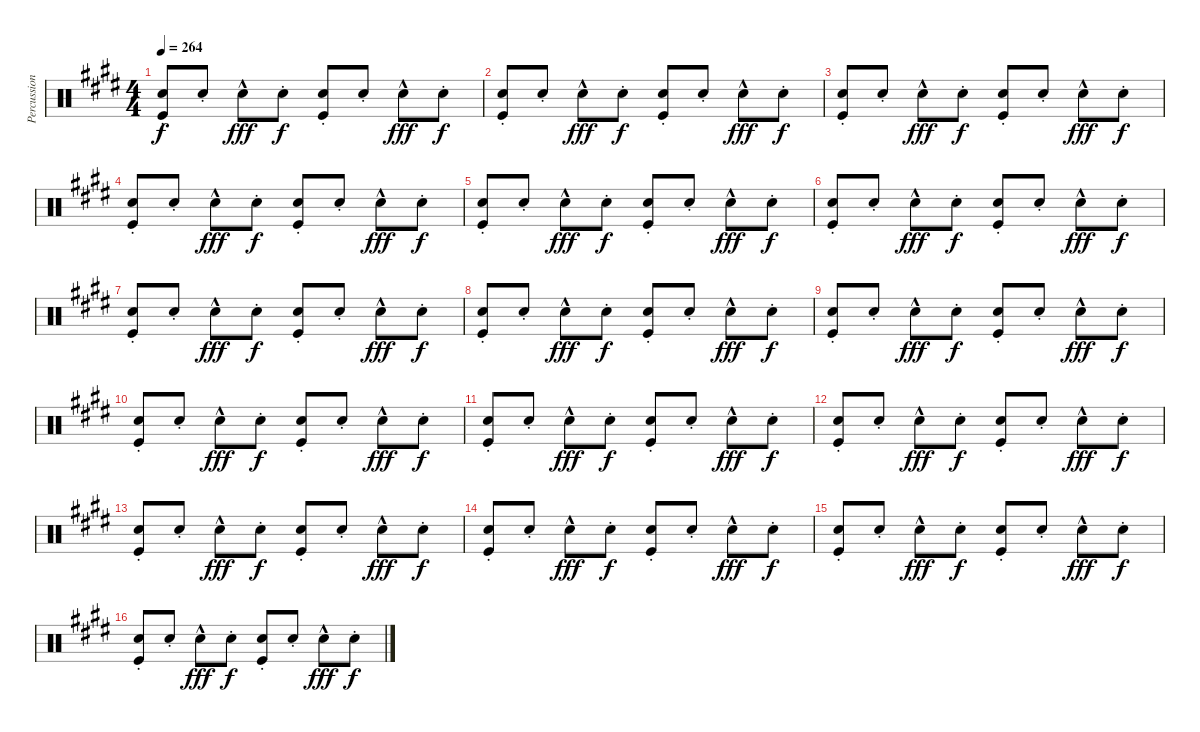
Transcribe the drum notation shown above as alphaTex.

\track ("Percussion" "Percussion") {instrument percussion}
\staff {score}
\articulation defaults
\ts (4 4)
\tempo 264
\clef neutral
\ks e
("Snare (hit) 2"{st} "Kick (hit)").8{dy f} "Snare (hit) 2"{st}.8 "Snare (hit) 2"{hac}.8{dy fff} "Snare (hit) 2"{st}.8{dy f} ("Snare (hit) 2"{st} "Kick (hit)").8 "Snare (hit) 2"{st}.8 "Snare (hit) 2"{hac}.8{dy fff} "Snare (hit) 2"{st}.8{dy f} |
("Snare (hit) 2"{st} "Kick (hit)").8 "Snare (hit) 2"{st}.8 "Snare (hit) 2"{hac}.8{dy fff} "Snare (hit) 2"{st}.8{dy f} ("Snare (hit) 2"{st} "Kick (hit)").8 "Snare (hit) 2"{st}.8 "Snare (hit) 2"{hac}.8{dy fff} "Snare (hit) 2"{st}.8{dy f} |
("Snare (hit) 2"{st} "Kick (hit)").8 "Snare (hit) 2"{st}.8 "Snare (hit) 2"{hac}.8{dy fff} "Snare (hit) 2"{st}.8{dy f} ("Snare (hit) 2"{st} "Kick (hit)").8 "Snare (hit) 2"{st}.8 "Snare (hit) 2"{hac}.8{dy fff} "Snare (hit) 2"{st}.8{dy f} |
("Snare (hit) 2"{st} "Kick (hit)").8 "Snare (hit) 2"{st}.8 "Snare (hit) 2"{hac}.8{dy fff} "Snare (hit) 2"{st}.8{dy f} ("Snare (hit) 2"{st} "Kick (hit)").8 "Snare (hit) 2"{st}.8 "Snare (hit) 2"{hac}.8{dy fff} "Snare (hit) 2"{st}.8{dy f} |
("Snare (hit) 2"{st} "Kick (hit)").8 "Snare (hit) 2"{st}.8 "Snare (hit) 2"{hac}.8{dy fff} "Snare (hit) 2"{st}.8{dy f} ("Snare (hit) 2"{st} "Kick (hit)").8 "Snare (hit) 2"{st}.8 "Snare (hit) 2"{hac}.8{dy fff} "Snare (hit) 2"{st}.8{dy f} |
("Snare (hit) 2"{st} "Kick (hit)").8 "Snare (hit) 2"{st}.8 "Snare (hit) 2"{hac}.8{dy fff} "Snare (hit) 2"{st}.8{dy f} ("Snare (hit) 2"{st} "Kick (hit)").8 "Snare (hit) 2"{st}.8 "Snare (hit) 2"{hac}.8{dy fff} "Snare (hit) 2"{st}.8{dy f} |
("Snare (hit) 2"{st} "Kick (hit)").8 "Snare (hit) 2"{st}.8 "Snare (hit) 2"{hac}.8{dy fff} "Snare (hit) 2"{st}.8{dy f} ("Snare (hit) 2"{st} "Kick (hit)").8 "Snare (hit) 2"{st}.8 "Snare (hit) 2"{hac}.8{dy fff} "Snare (hit) 2"{st}.8{dy f} |
("Snare (hit) 2"{st} "Kick (hit)").8 "Snare (hit) 2"{st}.8 "Snare (hit) 2"{hac}.8{dy fff} "Snare (hit) 2"{st}.8{dy f} ("Snare (hit) 2"{st} "Kick (hit)").8 "Snare (hit) 2"{st}.8 "Snare (hit) 2"{hac}.8{dy fff} "Snare (hit) 2"{st}.8{dy f} |
("Snare (hit) 2"{st} "Kick (hit)").8 "Snare (hit) 2"{st}.8 "Snare (hit) 2"{hac}.8{dy fff} "Snare (hit) 2"{st}.8{dy f} ("Snare (hit) 2"{st} "Kick (hit)").8 "Snare (hit) 2"{st}.8 "Snare (hit) 2"{hac}.8{dy fff} "Snare (hit) 2"{st}.8{dy f} |
("Snare (hit) 2"{st} "Kick (hit)").8 "Snare (hit) 2"{st}.8 "Snare (hit) 2"{hac}.8{dy fff} "Snare (hit) 2"{st}.8{dy f} ("Snare (hit) 2"{st} "Kick (hit)").8 "Snare (hit) 2"{st}.8 "Snare (hit) 2"{hac}.8{dy fff} "Snare (hit) 2"{st}.8{dy f} |
("Snare (hit) 2"{st} "Kick (hit)").8 "Snare (hit) 2"{st}.8 "Snare (hit) 2"{hac}.8{dy fff} "Snare (hit) 2"{st}.8{dy f} ("Snare (hit) 2"{st} "Kick (hit)").8 "Snare (hit) 2"{st}.8 "Snare (hit) 2"{hac}.8{dy fff} "Snare (hit) 2"{st}.8{dy f} |
("Snare (hit) 2"{st} "Kick (hit)").8 "Snare (hit) 2"{st}.8 "Snare (hit) 2"{hac}.8{dy fff} "Snare (hit) 2"{st}.8{dy f} ("Snare (hit) 2"{st} "Kick (hit)").8 "Snare (hit) 2"{st}.8 "Snare (hit) 2"{hac}.8{dy fff} "Snare (hit) 2"{st}.8{dy f} |
("Snare (hit) 2"{st} "Kick (hit)").8 "Snare (hit) 2"{st}.8 "Snare (hit) 2"{hac}.8{dy fff} "Snare (hit) 2"{st}.8{dy f} ("Snare (hit) 2"{st} "Kick (hit)").8 "Snare (hit) 2"{st}.8 "Snare (hit) 2"{hac}.8{dy fff} "Snare (hit) 2"{st}.8{dy f} |
("Snare (hit) 2"{st} "Kick (hit)").8 "Snare (hit) 2"{st}.8 "Snare (hit) 2"{hac}.8{dy fff} "Snare (hit) 2"{st}.8{dy f} ("Snare (hit) 2"{st} "Kick (hit)").8 "Snare (hit) 2"{st}.8 "Snare (hit) 2"{hac}.8{dy fff} "Snare (hit) 2"{st}.8{dy f} |
("Snare (hit) 2"{st} "Kick (hit)").8 "Snare (hit) 2"{st}.8 "Snare (hit) 2"{hac}.8{dy fff} "Snare (hit) 2"{st}.8{dy f} ("Snare (hit) 2"{st} "Kick (hit)").8 "Snare (hit) 2"{st}.8 "Snare (hit) 2"{hac}.8{dy fff} "Snare (hit) 2"{st}.8{dy f} |
("Snare (hit) 2"{st} "Kick (hit)").8 "Snare (hit) 2"{st}.8 "Snare (hit) 2"{hac}.8{dy fff} "Snare (hit) 2"{st}.8{dy f} ("Snare (hit) 2"{st} "Kick (hit)").8 "Snare (hit) 2"{st}.8 "Snare (hit) 2"{hac}.8{dy fff} "Snare (hit) 2"{st}.8{dy f}
